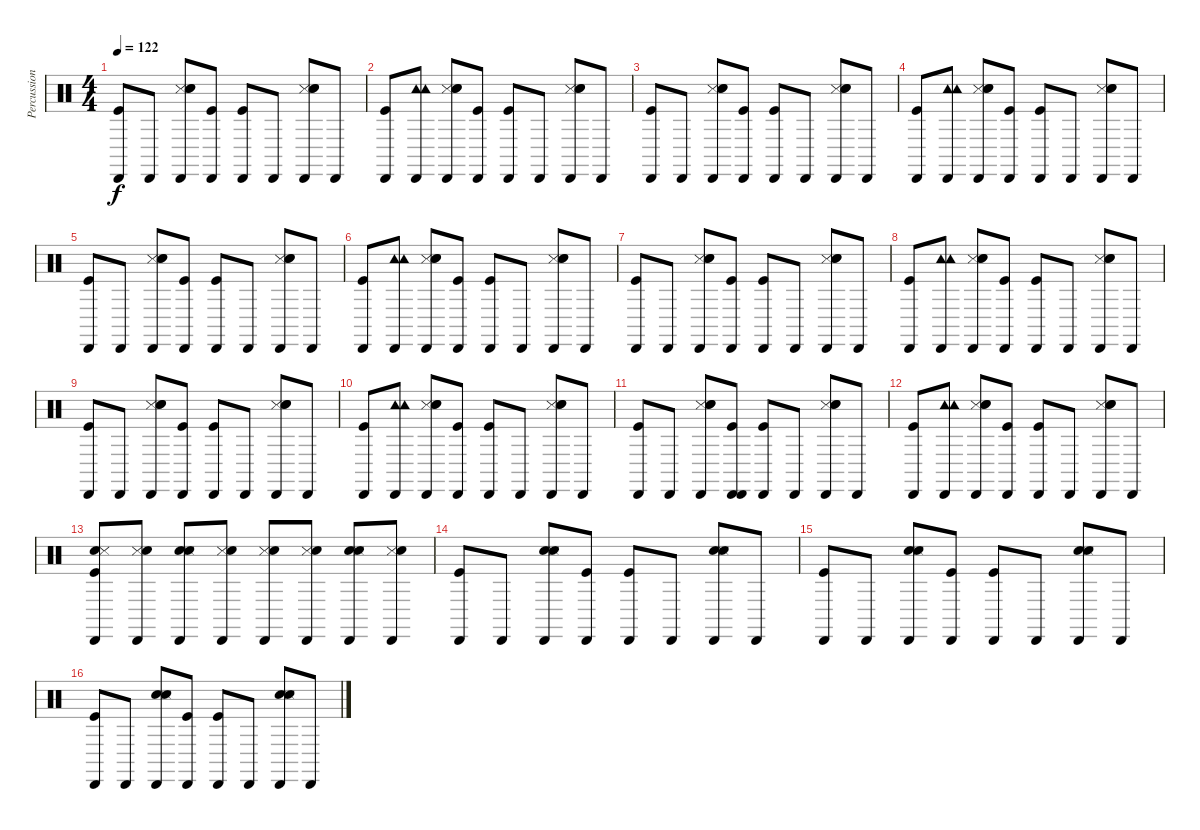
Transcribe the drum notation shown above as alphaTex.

\track ("Percussion" "Percussion") {instrument percussion}
\staff {score}
\articulation defaults
\ts (4 4)
\tempo 122
\clef neutral
\ks c
("Kick (hit)" "Cabasa (hit)").8{dy f} "Cabasa (hit)".8 ("Snare (side stick) 3" "Cabasa (hit)" "Hand Clap (hit)" "Snare (hit) 2").8 ("Kick (hit)" "Cabasa (hit)").8 ("Kick (hit)" "Cabasa (hit)").8 "Cabasa (hit)".8 ("Snare (side stick) 3" "Cabasa (hit)" "Hand Clap (hit)" "Snare (hit) 2").8 "Cabasa (hit)".8 |
("Kick (hit)" "Cabasa (hit)").8 ("Tambourine (hit)" "Cabasa (hit)" "Tambourine (hit)").8 ("Snare (side stick) 3" "Cabasa (hit)" "Hand Clap (hit)" "Snare (hit) 2").8 ("Kick (hit)" "Cabasa (hit)").8 ("Kick (hit)" "Cabasa (hit)").8 "Cabasa (hit)".8 ("Snare (side stick) 3" "Cabasa (hit)" "Hand Clap (hit)" "Snare (hit) 2").8 "Cabasa (hit)".8 |
("Kick (hit)" "Cabasa (hit)").8 "Cabasa (hit)".8 ("Snare (side stick) 3" "Cabasa (hit)" "Hand Clap (hit)" "Snare (hit) 2").8 ("Kick (hit)" "Cabasa (hit)").8 ("Kick (hit)" "Cabasa (hit)").8 "Cabasa (hit)".8 ("Snare (side stick) 3" "Cabasa (hit)" "Hand Clap (hit)" "Snare (hit) 2").8 "Cabasa (hit)".8 |
("Kick (hit)" "Cabasa (hit)").8 ("Tambourine (hit)" "Cabasa (hit)" "Tambourine (hit)").8 ("Snare (side stick) 3" "Cabasa (hit)" "Hand Clap (hit)" "Snare (hit) 2").8 ("Kick (hit)" "Cabasa (hit)").8 ("Kick (hit)" "Cabasa (hit)").8 "Cabasa (hit)".8 ("Snare (side stick) 3" "Cabasa (hit)" "Hand Clap (hit)" "Snare (hit) 2").8 "Cabasa (hit)".8 |
("Kick (hit)" "Cabasa (hit)").8 "Cabasa (hit)".8 ("Snare (side stick) 3" "Cabasa (hit)" "Hand Clap (hit)" "Snare (hit) 2").8 ("Kick (hit)" "Cabasa (hit)").8 ("Kick (hit)" "Cabasa (hit)").8 "Cabasa (hit)".8 ("Snare (side stick) 3" "Cabasa (hit)" "Hand Clap (hit)" "Snare (hit) 2").8 "Cabasa (hit)".8 |
("Kick (hit)" "Cabasa (hit)").8 ("Tambourine (hit)" "Cabasa (hit)" "Tambourine (hit)").8 ("Snare (side stick) 3" "Cabasa (hit)" "Hand Clap (hit)" "Snare (hit) 2").8 ("Kick (hit)" "Cabasa (hit)").8 ("Kick (hit)" "Cabasa (hit)").8 "Cabasa (hit)".8 ("Snare (side stick) 3" "Cabasa (hit)" "Hand Clap (hit)" "Snare (hit) 2").8 "Cabasa (hit)".8 |
("Kick (hit)" "Cabasa (hit)").8 "Cabasa (hit)".8 ("Snare (side stick) 3" "Cabasa (hit)" "Hand Clap (hit)" "Snare (hit) 2").8 ("Kick (hit)" "Cabasa (hit)").8 ("Kick (hit)" "Cabasa (hit)").8 "Cabasa (hit)".8 ("Snare (side stick) 3" "Cabasa (hit)" "Hand Clap (hit)" "Snare (hit) 2").8 "Cabasa (hit)".8 |
("Kick (hit)" "Cabasa (hit)").8 ("Tambourine (hit)" "Cabasa (hit)" "Tambourine (hit)").8 ("Snare (side stick) 3" "Cabasa (hit)" "Hand Clap (hit)" "Snare (hit) 2").8 ("Kick (hit)" "Cabasa (hit)").8 ("Kick (hit)" "Cabasa (hit)").8 "Cabasa (hit)".8 ("Snare (side stick) 3" "Cabasa (hit)" "Hand Clap (hit)" "Snare (hit) 2").8 "Cabasa (hit)".8 |
("Kick (hit)" "Cabasa (hit)").8 "Cabasa (hit)".8 ("Snare (side stick) 3" "Hand Clap (hit)" "Cabasa (hit)" "Snare (hit) 2").8 ("Kick (hit)" "Cabasa (hit)").8 ("Kick (hit)" "Cabasa (hit)").8 "Cabasa (hit)".8 ("Snare (side stick) 3" "Hand Clap (hit)" "Cabasa (hit)" "Snare (hit) 2").8 "Cabasa (hit)".8 |
("Kick (hit)" "Cabasa (hit)").8 ("Tambourine (hit)" "Cabasa (hit)" "Tambourine (hit)").8 ("Snare (side stick) 3" "Hand Clap (hit)" "Cabasa (hit)" "Snare (hit) 2").8 ("Kick (hit)" "Cabasa (hit)").8 ("Kick (hit)" "Cabasa (hit)").8 "Cabasa (hit)".8 ("Snare (side stick) 3" "Hand Clap (hit)" "Cabasa (hit)" "Snare (hit) 2").8 "Cabasa (hit)".8 |
("Kick (hit)" "Cabasa (hit)").8 "Cabasa (hit)".8 ("Snare (side stick) 3" "Hand Clap (hit)" "Cabasa (hit)" "Snare (hit) 2").8 ("Kick (hit)" "Cabasa (hit)" "Cabasa (hit)").8 ("Kick (hit)" "Cabasa (hit)").8 "Cabasa (hit)".8 ("Snare (side stick) 3" "Hand Clap (hit)" "Cabasa (hit)" "Snare (hit) 2").8 "Cabasa (hit)".8 |
("Kick (hit)" "Cabasa (hit)").8 ("Tambourine (hit)" "Cabasa (hit)" "Tambourine (hit)").8 ("Snare (side stick) 3" "Hand Clap (hit)" "Cabasa (hit)" "Snare (hit) 2").8 ("Kick (hit)" "Cabasa (hit)").8 ("Kick (hit)" "Cabasa (hit)").8 "Cabasa (hit)".8 ("Snare (side stick) 3" "Hand Clap (hit)" "Cabasa (hit)" "Snare (hit) 2").8 "Cabasa (hit)".8 |
("Snare (hit) 2" "Snare (side stick) 3" "Kick (hit)" "Cabasa (hit)").8 ("Snare (side stick) 3" "Snare (hit) 2" "Cabasa (hit)").8 ("Hand Clap (hit)" "Snare (side stick) 3" "Cabasa (hit)" "Snare (hit) 2").8 ("Snare (side stick) 3" "Snare (hit) 2" "Cabasa (hit)").8 ("Snare (side stick) 3" "Snare (hit) 2" "Cabasa (hit)").8 ("Snare (side stick) 3" "Cabasa (hit)" "Snare (hit) 2").8 ("Hand Clap (hit)" "Snare (side stick) 3" "Cabasa (hit)" "Snare (hit) 2").8 ("Snare (side stick) 3" "Cabasa (hit)" "Snare (hit) 2").8 |
("Cabasa (hit)" "Kick (hit)").8 "Cabasa (hit)".8 ("Cabasa (hit)" "Hand Clap (hit)" "Snare (side stick) 3" "Snare (hit) 2").8 ("Cabasa (hit)" "Kick (hit)").8 ("Cabasa (hit)" "Kick (hit)").8 "Cabasa (hit)".8 ("Cabasa (hit)" "Hand Clap (hit)" "Snare (side stick) 3" "Snare (hit) 2").8 "Cabasa (hit)".8 |
("Cabasa (hit)" "Kick (hit)").8 "Cabasa (hit)".8 ("Cabasa (hit)" "Hand Clap (hit)" "Snare (side stick) 3" "Snare (hit) 2").8 ("Cabasa (hit)" "Kick (hit)").8 ("Cabasa (hit)" "Kick (hit)").8 "Cabasa (hit)".8 ("Cabasa (hit)" "Hand Clap (hit)" "Snare (side stick) 3" "Snare (hit) 2").8 "Cabasa (hit)".8 |
("Cabasa (hit)" "Kick (hit)").8 "Cabasa (hit)".8 ("Cabasa (hit)" "Hand Clap (hit)" "Snare (side stick) 3" "Snare (hit) 2").8 ("Cabasa (hit)" "Kick (hit)").8 ("Cabasa (hit)" "Kick (hit)").8 "Cabasa (hit)".8 ("Cabasa (hit)" "Hand Clap (hit)" "Snare (side stick) 3" "Snare (hit) 2").8 "Cabasa (hit)".8
